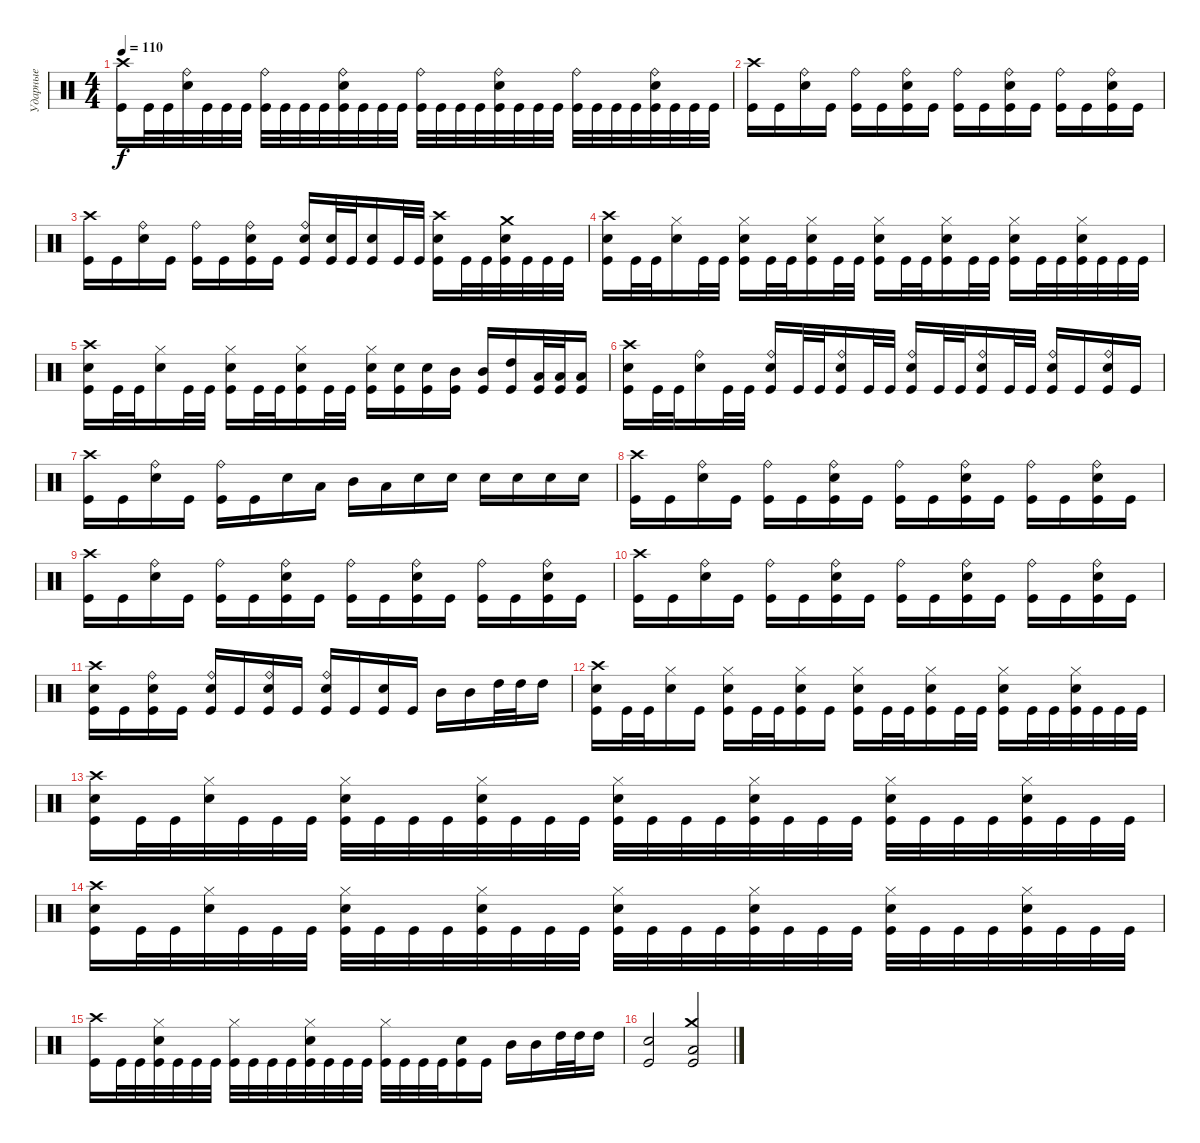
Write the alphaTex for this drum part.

\track ("Ударные" "Ударные") {instrument percussion}
\staff {score}
\articulation defaults
\ts (4 4)
\tempo 110
\clef neutral
\ks c
("Crash high (hit)" "Kick (hit)").16{dy f} "Kick (hit)".32 "Kick (hit)".32 ("Ride (bell)" "Electric Snare (hit)").32 "Kick (hit)".32 "Kick (hit)".32 "Kick (hit)".32 ("Ride (bell)" "Kick (hit)").32 "Kick (hit)".32 "Kick (hit)".32 "Kick (hit)".32 ("Ride (bell)" "Electric Snare (hit)" "Kick (hit)").32 "Kick (hit)".32 "Kick (hit)".32 "Kick (hit)".32 ("Ride (bell)" "Kick (hit)").32 "Kick (hit)".32 "Kick (hit)".32 "Kick (hit)".32 ("Ride (bell)" "Electric Snare (hit)" "Kick (hit)").32 "Kick (hit)".32 "Kick (hit)".32 "Kick (hit)".32 ("Ride (bell)" "Kick (hit)").32 "Kick (hit)".32 "Kick (hit)".32 "Kick (hit)".32 ("Ride (bell)" "Electric Snare (hit)" "Kick (hit)").32 "Kick (hit)".32 "Kick (hit)".32 "Kick (hit)".32 |
("Crash high (hit)" "Kick (hit)").16 "Kick (hit)".16 ("Ride (bell)" "Electric Snare (hit)").16 "Kick (hit)".16 ("Ride (bell)" "Kick (hit)").16 "Kick (hit)".16 ("Ride (bell)" "Electric Snare (hit)" "Kick (hit)").16 "Kick (hit)".16 ("Ride (bell)" "Kick (hit)").16 "Kick (hit)".16 ("Ride (bell)" "Electric Snare (hit)" "Kick (hit)").16 "Kick (hit)".16 ("Ride (bell)" "Kick (hit)").16 "Kick (hit)".16 ("Ride (bell)" "Electric Snare (hit)" "Kick (hit)").16 "Kick (hit)".16 |
("Crash high (hit)" "Kick (hit)").16 "Kick (hit)".16 ("Ride (bell)" "Electric Snare (hit)").16 "Kick (hit)".16 ("Ride (bell)" "Kick (hit)").16 "Kick (hit)".16 ("Ride (bell)" "Electric Snare (hit)" "Kick (hit)").16 "Kick (hit)".16 ("Ride (bell)" "Electric Snare (hit)" "Kick (hit)").16 ("Electric Snare (hit)" "Kick (hit)").32 "Kick (hit)".32 ("Electric Snare (hit)" "Kick (hit)").16 "Kick (hit)".32 "Kick (hit)".32 ("Crash high (hit)" "Electric Snare (hit)" "Kick (hit)").16 "Kick (hit)".32 "Kick (hit)".32 ("Crash medium (hit)" "Electric Snare (hit)" "Kick (hit)").32 "Kick (hit)".32 "Kick (hit)".32 "Kick (hit)".32 |
("Crash high (hit)" "Electric Snare (hit)" "Kick (hit)").16 "Kick (hit)".32 "Kick (hit)".32 ("Hi-Hat (closed)" "Electric Snare (hit)").16 "Kick (hit)".32 "Kick (hit)".32 ("Hi-Hat (closed)" "Electric Snare (hit)" "Kick (hit)").16 "Kick (hit)".32 "Kick (hit)".32 ("Hi-Hat (closed)" "Electric Snare (hit)" "Kick (hit)").16 "Kick (hit)".32 "Kick (hit)".32 ("Hi-Hat (closed)" "Electric Snare (hit)" "Kick (hit)").16 "Kick (hit)".32 "Kick (hit)".32 ("Hi-Hat (closed)" "Electric Snare (hit)" "Kick (hit)").16 "Kick (hit)".32 "Kick (hit)".32 ("Hi-Hat (closed)" "Electric Snare (hit)" "Kick (hit)").16 "Kick (hit)".32 "Kick (hit)".32 ("Hi-Hat (closed)" "Electric Snare (hit)" "Kick (hit)").32 "Kick (hit)".32 "Kick (hit)".32 "Kick (hit)".32 |
("Crash high (hit)" "Electric Snare (hit)" "Kick (hit)").16 "Kick (hit)".32 "Kick (hit)".32 ("Hi-Hat (closed)" "Electric Snare (hit)").16 "Kick (hit)".32 "Kick (hit)".32 ("Hi-Hat (closed)" "Electric Snare (hit)" "Kick (hit)").16 "Kick (hit)".32 "Kick (hit)".32 ("Hi-Hat (closed)" "Electric Snare (hit)" "Kick (hit)").16 "Kick (hit)".32 "Kick (hit)".32 ("Hi-Hat (closed)" "Electric Snare (hit)" "Kick (hit)").16 ("Electric Snare (hit)" "Kick (hit)").16 ("Electric Snare (hit)" "Kick (hit)").16 ("Mid Tom (hit)" "Kick (hit)").16 ("Mid Tom (hit)" "Kick (hit)").16 ("High Tom (hit)" "Kick (hit)").16 ("Low Tom (hit)" "Kick (hit)").32 ("Low Tom (hit)" "Kick (hit)").32 ("Low Tom (hit)" "Kick (hit)").16 |
("Crash high (hit)" "Electric Snare (hit)" "Kick (hit)").16 "Kick (hit)".32 "Kick (hit)".32 ("Ride (bell)" "Electric Snare (hit)").16 "Kick (hit)".32 "Kick (hit)".32 ("Ride (bell)" "Electric Snare (hit)" "Kick (hit)").16 "Kick (hit)".32 "Kick (hit)".32 ("Ride (bell)" "Electric Snare (hit)" "Kick (hit)").16 "Kick (hit)".32 "Kick (hit)".32 ("Ride (bell)" "Electric Snare (hit)" "Kick (hit)").16 "Kick (hit)".32 "Kick (hit)".32 ("Ride (bell)" "Electric Snare (hit)" "Kick (hit)").16 "Kick (hit)".32 "Kick (hit)".32 ("Ride (bell)" "Electric Snare (hit)" "Kick (hit)").16 "Kick (hit)".16 ("Ride (bell)" "Electric Snare (hit)" "Kick (hit)").16 "Kick (hit)".16 |
("Crash high (hit)" "Kick (hit)").16 "Kick (hit)".16 ("Ride (bell)" "Electric Snare (hit)").16 "Kick (hit)".16 ("Ride (bell)" "Kick (hit)").16 "Kick (hit)".16 "Electric Snare (hit)".16 "Low Tom (hit)".16 "Mid Tom (hit)".16 "Low Tom (hit)".16 "Electric Snare (hit)".16 "Electric Snare (hit)".16 "Electric Snare (hit)".16 "Electric Snare (hit)".16 "Electric Snare (hit)".16 "Electric Snare (hit)".16 |
("Crash high (hit)" "Kick (hit)").16 "Kick (hit)".16 ("Ride (bell)" "Electric Snare (hit)").16 "Kick (hit)".16 ("Ride (bell)" "Kick (hit)").16 "Kick (hit)".16 ("Ride (bell)" "Electric Snare (hit)" "Kick (hit)").16 "Kick (hit)".16 ("Ride (bell)" "Kick (hit)").16 "Kick (hit)".16 ("Ride (bell)" "Electric Snare (hit)" "Kick (hit)").16 "Kick (hit)".16 ("Ride (bell)" "Kick (hit)").16 "Kick (hit)".16 ("Ride (bell)" "Electric Snare (hit)" "Kick (hit)").16 "Kick (hit)".16 |
("Crash high (hit)" "Kick (hit)").16 "Kick (hit)".16 ("Ride (bell)" "Electric Snare (hit)").16 "Kick (hit)".16 ("Ride (bell)" "Kick (hit)").16 "Kick (hit)".16 ("Ride (bell)" "Electric Snare (hit)" "Kick (hit)").16 "Kick (hit)".16 ("Ride (bell)" "Kick (hit)").16 "Kick (hit)".16 ("Ride (bell)" "Electric Snare (hit)" "Kick (hit)").16 "Kick (hit)".16 ("Ride (bell)" "Kick (hit)").16 "Kick (hit)".16 ("Ride (bell)" "Electric Snare (hit)" "Kick (hit)").16 "Kick (hit)".16 |
("Crash high (hit)" "Kick (hit)").16 "Kick (hit)".16 ("Ride (bell)" "Electric Snare (hit)").16 "Kick (hit)".16 ("Ride (bell)" "Kick (hit)").16 "Kick (hit)".16 ("Ride (bell)" "Electric Snare (hit)" "Kick (hit)").16 "Kick (hit)".16 ("Ride (bell)" "Kick (hit)").16 "Kick (hit)".16 ("Ride (bell)" "Electric Snare (hit)" "Kick (hit)").16 "Kick (hit)".16 ("Ride (bell)" "Kick (hit)").16 "Kick (hit)".16 ("Ride (bell)" "Electric Snare (hit)" "Kick (hit)").16 "Kick (hit)".16 |
("Crash high (hit)" "Electric Snare (hit)" "Kick (hit)").16 "Kick (hit)".16 ("Ride (bell)" "Electric Snare (hit)" "Kick (hit)").16 "Kick (hit)".16 ("Ride (bell)" "Electric Snare (hit)" "Kick (hit)").16 "Kick (hit)".16 ("Ride (bell)" "Electric Snare (hit)" "Kick (hit)").16 "Kick (hit)".16 ("Ride (bell)" "Electric Snare (hit)" "Kick (hit)").16 "Kick (hit)".16 ("Electric Snare (hit)" "Kick (hit)").16 "Kick (hit)".16 "Mid Tom (hit)".16 "Mid Tom (hit)".16 "High Tom (hit)".32 "High Tom (hit)".32 "High Tom (hit)".16 |
("Crash high (hit)" "Electric Snare (hit)" "Kick (hit)").16 "Kick (hit)".32 "Kick (hit)".32 ("Hi-Hat (closed)" "Electric Snare (hit)").16 "Kick (hit)".16 ("Hi-Hat (closed)" "Electric Snare (hit)" "Kick (hit)").16 "Kick (hit)".32 "Kick (hit)".32 ("Hi-Hat (closed)" "Electric Snare (hit)" "Kick (hit)").16 "Kick (hit)".16 ("Hi-Hat (closed)" "Electric Snare (hit)" "Kick (hit)").16 "Kick (hit)".32 "Kick (hit)".32 ("Hi-Hat (closed)" "Electric Snare (hit)" "Kick (hit)").16 "Kick (hit)".32 "Kick (hit)".32 ("Hi-Hat (closed)" "Electric Snare (hit)" "Kick (hit)").16 "Kick (hit)".32 "Kick (hit)".32 ("Hi-Hat (closed)" "Electric Snare (hit)" "Kick (hit)").32 "Kick (hit)".32 "Kick (hit)".32 "Kick (hit)".32 |
("Crash high (hit)" "Electric Snare (hit)" "Kick (hit)").16 "Kick (hit)".32 "Kick (hit)".32 ("Hi-Hat (closed)" "Electric Snare (hit)").32 "Kick (hit)".32 "Kick (hit)".32 "Kick (hit)".32 ("Hi-Hat (closed)" "Electric Snare (hit)" "Kick (hit)").32 "Kick (hit)".32 "Kick (hit)".32 "Kick (hit)".32 ("Hi-Hat (closed)" "Electric Snare (hit)" "Kick (hit)").32 "Kick (hit)".32 "Kick (hit)".32 "Kick (hit)".32 ("Hi-Hat (closed)" "Electric Snare (hit)" "Kick (hit)").32 "Kick (hit)".32 "Kick (hit)".32 "Kick (hit)".32 ("Hi-Hat (closed)" "Electric Snare (hit)" "Kick (hit)").32 "Kick (hit)".32 "Kick (hit)".32 "Kick (hit)".32 ("Hi-Hat (closed)" "Electric Snare (hit)" "Kick (hit)").32 "Kick (hit)".32 "Kick (hit)".32 "Kick (hit)".32 ("Hi-Hat (closed)" "Electric Snare (hit)" "Kick (hit)").32 "Kick (hit)".32 "Kick (hit)".32 "Kick (hit)".32 |
("Crash high (hit)" "Electric Snare (hit)" "Kick (hit)").16 "Kick (hit)".32 "Kick (hit)".32 ("Hi-Hat (closed)" "Electric Snare (hit)").32 "Kick (hit)".32 "Kick (hit)".32 "Kick (hit)".32 ("Hi-Hat (closed)" "Electric Snare (hit)" "Kick (hit)").32 "Kick (hit)".32 "Kick (hit)".32 "Kick (hit)".32 ("Hi-Hat (closed)" "Electric Snare (hit)" "Kick (hit)").32 "Kick (hit)".32 "Kick (hit)".32 "Kick (hit)".32 ("Hi-Hat (closed)" "Electric Snare (hit)" "Kick (hit)").32 "Kick (hit)".32 "Kick (hit)".32 "Kick (hit)".32 ("Hi-Hat (closed)" "Electric Snare (hit)" "Kick (hit)").32 "Kick (hit)".32 "Kick (hit)".32 "Kick (hit)".32 ("Hi-Hat (closed)" "Electric Snare (hit)" "Kick (hit)").32 "Kick (hit)".32 "Kick (hit)".32 "Kick (hit)".32 ("Hi-Hat (closed)" "Electric Snare (hit)" "Kick (hit)").32 "Kick (hit)".32 "Kick (hit)".32 "Kick (hit)".32 |
("Crash high (hit)" "Kick (hit)").16 "Kick (hit)".32 "Kick (hit)".32 ("Hi-Hat (closed)" "Electric Snare (hit)" "Kick (hit)").32 "Kick (hit)".32 "Kick (hit)".32 "Kick (hit)".32 ("Hi-Hat (closed)" "Kick (hit)").32 "Kick (hit)".32 "Kick (hit)".32 "Kick (hit)".32 ("Hi-Hat (closed)" "Electric Snare (hit)" "Kick (hit)").32 "Kick (hit)".32 "Kick (hit)".32 "Kick (hit)".32 ("Hi-Hat (closed)" "Kick (hit)").32 "Kick (hit)".32 "Kick (hit)".32 "Kick (hit)".32 ("Electric Snare (hit)" "Kick (hit)").16 "Kick (hit)".16 "Mid Tom (hit)".16 "Mid Tom (hit)".16 "High Tom (hit)".32 "High Tom (hit)".32 "High Tom (hit)".16 |
("Electric Snare (hit)" "Kick (hit)").2 ("Crash medium (hit)" "Low Tom (hit)" "Kick (hit)").2
